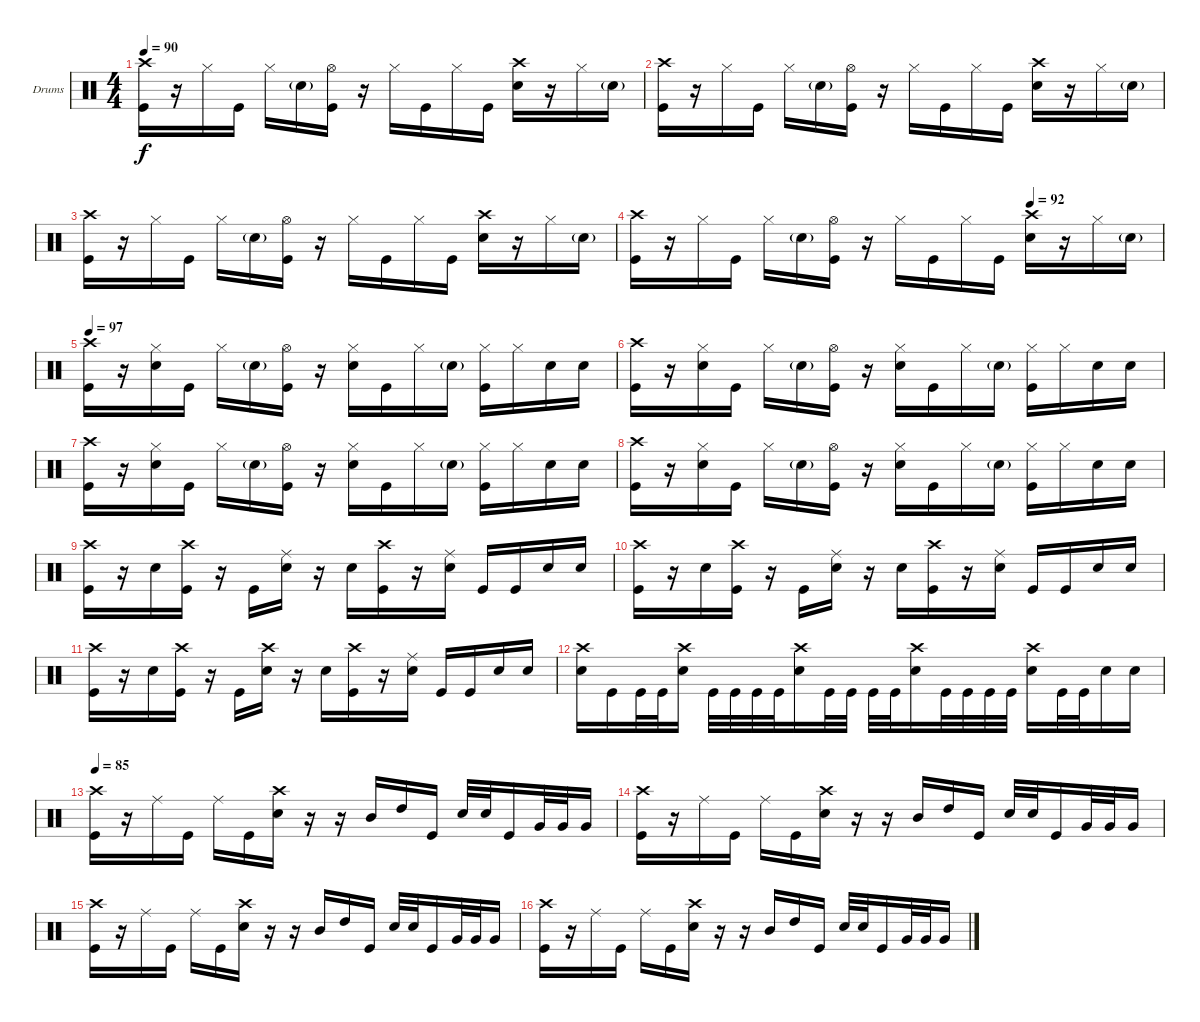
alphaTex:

\bracketExtendMode groupsimilarinstruments
\firstSystemTrackNameOrientation horizontal
\otherSystemsTrackNameOrientation horizontal
\track ("Drumkit" "Drums") {instrument percussion}
\staff {score}
\articulation defaults
\ts (4 4)
\tempo 90
\clef neutral
\ks c
("Crash high (hit)" "Kick (hit)").16{dy f} r.16 "Hi-Hat (closed)".16 "Kick (hit)".16 "Hi-Hat (closed)".16 "Snare (hit) 2"{g}.16 ("Hi-Hat (open)" "Kick (hit)").16 r.16 "Hi-Hat (closed)".16 "Kick (hit)".16 "Hi-Hat (closed)".16 "Kick (hit)".16 ("Crash high (hit)" "Snare (hit) 2").16 r.16 "Hi-Hat (closed)".16 "Snare (hit) 2"{g}.16 |
("Crash high (hit)" "Kick (hit)").16 r.16 "Hi-Hat (closed)".16 "Kick (hit)".16 "Hi-Hat (closed)".16 "Snare (hit) 2"{g}.16 ("Hi-Hat (open)" "Kick (hit)").16 r.16 "Hi-Hat (closed)".16 "Kick (hit)".16 "Hi-Hat (closed)".16 "Kick (hit)".16 ("Crash high (hit)" "Snare (hit) 2").16 r.16 "Hi-Hat (closed)".16 "Snare (hit) 2"{g}.16 |
("Crash high (hit)" "Kick (hit)").16 r.16 "Hi-Hat (closed)".16 "Kick (hit)".16 "Hi-Hat (closed)".16 "Snare (hit) 2"{g}.16 ("Hi-Hat (open)" "Kick (hit)").16 r.16 "Hi-Hat (closed)".16 "Kick (hit)".16 "Hi-Hat (closed)".16 "Kick (hit)".16 ("Crash high (hit)" "Snare (hit) 2").16 r.16 "Hi-Hat (closed)".16 "Snare (hit) 2"{g}.16 |
\tempo (92 0.75)
("Crash high (hit)" "Kick (hit)").16 r.16 "Hi-Hat (closed)".16 "Kick (hit)".16 "Hi-Hat (closed)".16 "Snare (hit) 2"{g}.16 ("Hi-Hat (open)" "Kick (hit)").16 r.16 "Hi-Hat (closed)".16 "Kick (hit)".16 "Hi-Hat (closed)".16 "Kick (hit)".16 ("Crash high (hit)" "Snare (hit) 2").16 r.16 "Hi-Hat (closed)".16 "Snare (hit) 2"{g}.16 |
\tempo 97
("Crash high (hit)" "Kick (hit)").16 r.16 ("Hi-Hat (closed)" "Snare (hit) 2").16 "Kick (hit)".16 "Hi-Hat (closed)".16 "Snare (hit) 2"{g}.16 ("Hi-Hat (open)" "Kick (hit)").16 r.16 ("Hi-Hat (closed)" "Snare (hit) 2").16 "Kick (hit)".16 "Hi-Hat (closed)".16 "Snare (hit) 2"{g}.16 ("Hi-Hat (closed)" "Kick (hit)").16 "Hi-Hat (closed)".16 "Snare (hit) 2".16 "Snare (hit) 2".16 |
("Crash high (hit)" "Kick (hit)").16 r.16 ("Hi-Hat (closed)" "Snare (hit) 2").16 "Kick (hit)".16 "Hi-Hat (closed)".16 "Snare (hit) 2"{g}.16 ("Hi-Hat (open)" "Kick (hit)").16 r.16 ("Hi-Hat (closed)" "Snare (hit) 2").16 "Kick (hit)".16 "Hi-Hat (closed)".16 "Snare (hit) 2"{g}.16 ("Hi-Hat (closed)" "Kick (hit)").16 "Hi-Hat (closed)".16 "Snare (hit) 2".16 "Snare (hit) 2".16 |
("Crash high (hit)" "Kick (hit)").16 r.16 ("Hi-Hat (closed)" "Snare (hit) 2").16 "Kick (hit)".16 "Hi-Hat (closed)".16 "Snare (hit) 2"{g}.16 ("Hi-Hat (open)" "Kick (hit)").16 r.16 ("Hi-Hat (closed)" "Snare (hit) 2").16 "Kick (hit)".16 "Hi-Hat (closed)".16 "Snare (hit) 2"{g}.16 ("Hi-Hat (closed)" "Kick (hit)").16 "Hi-Hat (closed)".16 "Snare (hit) 2".16 "Snare (hit) 2".16 |
("Crash high (hit)" "Kick (hit)").16 r.16 ("Hi-Hat (closed)" "Snare (hit) 2").16 "Kick (hit)".16 "Hi-Hat (closed)".16 "Snare (hit) 2"{g}.16 ("Hi-Hat (open)" "Kick (hit)").16 r.16 ("Hi-Hat (closed)" "Snare (hit) 2").16 "Kick (hit)".16 "Hi-Hat (closed)".16 "Snare (hit) 2"{g}.16 ("Hi-Hat (closed)" "Kick (hit)").16 "Hi-Hat (closed)".16 "Snare (hit) 2".16 "Snare (hit) 2".16 |
("Crash high (hit)" "Kick (hit)").16 r.16 "Snare (hit) 2".16 ("Crash high (hit)" "Kick (hit)").16 r.16 "Kick (hit)".16 ("Ride (middle)" "Snare (hit) 2").16 r.16 "Snare (hit) 2".16 ("Crash high (hit)" "Kick (hit)").16 r.16 ("Ride (middle)" "Snare (hit) 2").16 "Kick (hit)".16 "Kick (hit)".16 "Snare (hit) 2".16 "Snare (hit) 2".16 |
("Crash high (hit)" "Kick (hit)").16 r.16 "Snare (hit) 2".16 ("Crash high (hit)" "Kick (hit)").16 r.16 "Kick (hit)".16 ("Ride (middle)" "Snare (hit) 2").16 r.16 "Snare (hit) 2".16 ("Crash high (hit)" "Kick (hit)").16 r.16 ("Ride (middle)" "Snare (hit) 2").16 "Kick (hit)".16 "Kick (hit)".16 "Snare (hit) 2".16 "Snare (hit) 2".16 |
("Crash high (hit)" "Kick (hit)").16 r.16 "Snare (hit) 2".16 ("Crash high (hit)" "Kick (hit)").16 r.16 "Kick (hit)".16 ("Crash high (hit)" "Snare (hit) 2").16 r.16 "Snare (hit) 2".16 ("Crash high (hit)" "Kick (hit)").16 r.16 ("Ride (middle)" "Snare (hit) 2").16 "Kick (hit)".16 "Kick (hit)".16 "Snare (hit) 2".16 "Snare (hit) 2".16 |
("Crash high (hit)" "Snare (hit) 2").16 "Kick (hit)".16 "Kick (hit)".32 "Kick (hit)".32 ("Crash high (hit)" "Snare (hit) 2").16 "Kick (hit)".32 "Kick (hit)".32 "Kick (hit)".32 "Kick (hit)".32 ("Crash high (hit)" "Snare (hit) 2").16 "Kick (hit)".32 "Kick (hit)".32 "Kick (hit)".32 "Kick (hit)".32 ("Crash high (hit)" "Snare (hit) 2").16 "Kick (hit)".32 "Kick (hit)".32 "Kick (hit)".32 "Kick (hit)".32 ("Crash high (hit)" "Snare (hit) 2").16 "Kick (hit)".32 "Kick (hit)".32 "Snare (hit) 2".16 "Snare (hit) 2".16 |
\tempo 85
("Crash high (hit)" "Kick (hit)").16 r.16 "Ride (middle)".16 "Kick (hit)".16 "Ride (middle)".16 "Kick (hit)".16 ("Crash high (hit)" "Snare (hit) 2").16 r.16 r.16 "Mid Tom (hit)".16 "High Tom (hit)".16 "Kick (hit)".16 "Snare (hit) 2".32 "Snare (hit) 2".32 "Kick (hit)".16 "Very Low Tom (hit)".32 "Very Low Tom (hit)".32 "Very Low Tom (hit)".16 |
("Crash high (hit)" "Kick (hit)").16 r.16 "Ride (middle)".16 "Kick (hit)".16 "Ride (middle)".16 "Kick (hit)".16 ("Crash high (hit)" "Snare (hit) 2").16 r.16 r.16 "Mid Tom (hit)".16 "High Tom (hit)".16 "Kick (hit)".16 "Snare (hit) 2".32 "Snare (hit) 2".32 "Kick (hit)".16 "Very Low Tom (hit)".32 "Very Low Tom (hit)".32 "Very Low Tom (hit)".16 |
("Crash high (hit)" "Kick (hit)").16 r.16 "Ride (middle)".16 "Kick (hit)".16 "Ride (middle)".16 "Kick (hit)".16 ("Crash high (hit)" "Snare (hit) 2").16 r.16 r.16 "Mid Tom (hit)".16 "High Tom (hit)".16 "Kick (hit)".16 "Snare (hit) 2".32 "Snare (hit) 2".32 "Kick (hit)".16 "Very Low Tom (hit)".32 "Very Low Tom (hit)".32 "Very Low Tom (hit)".16 |
("Crash high (hit)" "Kick (hit)").16 r.16 "Ride (middle)".16 "Kick (hit)".16 "Ride (middle)".16 "Kick (hit)".16 ("Crash high (hit)" "Snare (hit) 2").16 r.16 r.16 "Mid Tom (hit)".16 "High Tom (hit)".16 "Kick (hit)".16 "Snare (hit) 2".32 "Snare (hit) 2".32 "Kick (hit)".16 "Very Low Tom (hit)".32 "Very Low Tom (hit)".32 "Very Low Tom (hit)".16
